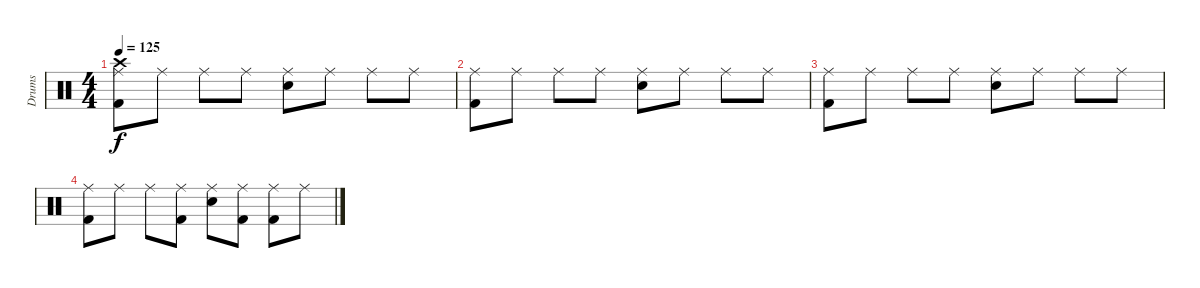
\track ("Drums" "Drums") {instrument percussion}
\staff {score}
\articulation defaults
\ts (4 4)
\tempo 125
\clef neutral
\ks c
("Crash high (hit)" "Ride (middle)" "Kick (hit) 2").8{dy f} "Ride (middle)".8 "Ride (middle)".8 "Ride (middle)".8 ("Ride (middle)" "Snare (hit) 2").8 "Ride (middle)".8 "Ride (middle)".8 "Ride (middle)".8 |
("Ride (middle)" "Kick (hit) 2").8 "Ride (middle)".8 "Ride (middle)".8 "Ride (middle)".8 ("Ride (middle)" "Snare (hit) 2").8 "Ride (middle)".8 "Ride (middle)".8 "Ride (middle)".8 |
("Ride (middle)" "Kick (hit) 2").8 "Ride (middle)".8 "Ride (middle)".8 "Ride (middle)".8 ("Ride (middle)" "Snare (hit) 2").8 "Ride (middle)".8 "Ride (middle)".8 "Ride (middle)".8 |
("Ride (middle)" "Kick (hit) 2").8 "Ride (middle)".8 "Ride (middle)".8 ("Ride (middle)" "Kick (hit) 2").8 ("Ride (middle)" "Snare (hit) 2").8 ("Ride (middle)" "Kick (hit) 2").8 ("Ride (middle)" "Kick (hit) 2").8 "Ride (middle)".8
